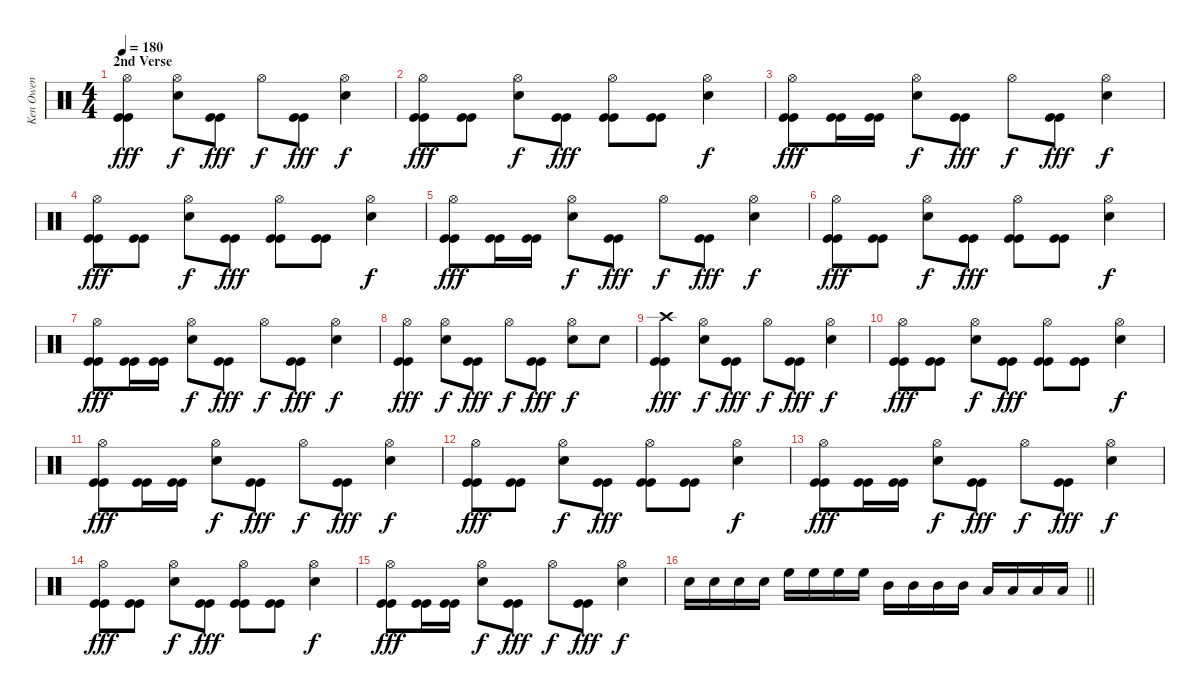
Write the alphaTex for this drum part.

\track ("Ken Owen" "Ken Owen") {instrument percussion}
\staff {score}
\articulation defaults
\ts (4 4)
\section ("" "2nd Verse")
\tempo 180
\clef neutral
\ks c
("Hi-Hat (open)" "Kick (hit)" "Kick (hit)").4{dy fff} ("Hi-Hat (open)" "Snare (hit) 2").8{dy f} ("Kick (hit)" "Kick (hit)").8{dy fff} "Hi-Hat (open)".8{dy f} ("Kick (hit)" "Kick (hit)").8{dy fff} ("Hi-Hat (open)" "Snare (hit) 2").4{dy f} |
("Hi-Hat (open)" "Kick (hit)" "Kick (hit)").8{dy fff} ("Kick (hit)" "Kick (hit)").8 ("Hi-Hat (open)" "Snare (hit) 2").8{dy f} ("Kick (hit)" "Kick (hit)").8{dy fff} ("Hi-Hat (open)" "Kick (hit)" "Kick (hit)").8 ("Kick (hit)" "Kick (hit)").8 ("Hi-Hat (open)" "Snare (hit) 2").4{dy f} |
("Hi-Hat (open)" "Kick (hit)" "Kick (hit)").8{dy fff} ("Kick (hit)" "Kick (hit)").16 ("Kick (hit)" "Kick (hit)").16 ("Hi-Hat (open)" "Snare (hit) 2").8{dy f} ("Kick (hit)" "Kick (hit)").8{dy fff} "Hi-Hat (open)".8{dy f} ("Kick (hit)" "Kick (hit)").8{dy fff} ("Hi-Hat (open)" "Snare (hit) 2").4{dy f} |
("Hi-Hat (open)" "Kick (hit)" "Kick (hit)").8{dy fff} ("Kick (hit)" "Kick (hit)").8 ("Hi-Hat (open)" "Snare (hit) 2").8{dy f} ("Kick (hit)" "Kick (hit)").8{dy fff} ("Hi-Hat (open)" "Kick (hit)" "Kick (hit)").8 ("Kick (hit)" "Kick (hit)").8 ("Hi-Hat (open)" "Snare (hit) 2").4{dy f} |
("Hi-Hat (open)" "Kick (hit)" "Kick (hit)").8{dy fff} ("Kick (hit)" "Kick (hit)").16 ("Kick (hit)" "Kick (hit)").16 ("Hi-Hat (open)" "Snare (hit) 2").8{dy f} ("Kick (hit)" "Kick (hit)").8{dy fff} "Hi-Hat (open)".8{dy f} ("Kick (hit)" "Kick (hit)").8{dy fff} ("Hi-Hat (open)" "Snare (hit) 2").4{dy f} |
("Hi-Hat (open)" "Kick (hit)" "Kick (hit)").8{dy fff} ("Kick (hit)" "Kick (hit)").8 ("Hi-Hat (open)" "Snare (hit) 2").8{dy f} ("Kick (hit)" "Kick (hit)").8{dy fff} ("Hi-Hat (open)" "Kick (hit)" "Kick (hit)").8 ("Kick (hit)" "Kick (hit)").8 ("Hi-Hat (open)" "Snare (hit) 2").4{dy f} |
("Hi-Hat (open)" "Kick (hit)" "Kick (hit)").8{dy fff} ("Kick (hit)" "Kick (hit)").16 ("Kick (hit)" "Kick (hit)").16 ("Hi-Hat (open)" "Snare (hit) 2").8{dy f} ("Kick (hit)" "Kick (hit)").8{dy fff} "Hi-Hat (open)".8{dy f} ("Kick (hit)" "Kick (hit)").8{dy fff} ("Hi-Hat (open)" "Snare (hit) 2").4{dy f} |
("Hi-Hat (open)" "Kick (hit)" "Kick (hit)").4{dy fff} ("Hi-Hat (open)" "Snare (hit) 2").8{dy f} ("Kick (hit)" "Kick (hit)").8{dy fff} "Hi-Hat (open)".8{dy f} ("Kick (hit)" "Kick (hit)").8{dy fff} ("Hi-Hat (open)" "Snare (hit) 2").8{dy f} "Snare (hit) 2".8 |
("Crash high (hit)" "Kick (hit)" "Kick (hit)").4{dy fff} ("Hi-Hat (open)" "Snare (hit) 2").8{dy f} ("Kick (hit)" "Kick (hit)").8{dy fff} "Hi-Hat (open)".8{dy f} ("Kick (hit)" "Kick (hit)").8{dy fff} ("Hi-Hat (open)" "Snare (hit) 2").4{dy f} |
("Hi-Hat (open)" "Kick (hit)" "Kick (hit)").8{dy fff} ("Kick (hit)" "Kick (hit)").8 ("Hi-Hat (open)" "Snare (hit) 2").8{dy f} ("Kick (hit)" "Kick (hit)").8{dy fff} ("Hi-Hat (open)" "Kick (hit)" "Kick (hit)").8 ("Kick (hit)" "Kick (hit)").8 ("Hi-Hat (open)" "Snare (hit) 2").4{dy f} |
("Hi-Hat (open)" "Kick (hit)" "Kick (hit)").8{dy fff} ("Kick (hit)" "Kick (hit)").16 ("Kick (hit)" "Kick (hit)").16 ("Hi-Hat (open)" "Snare (hit) 2").8{dy f} ("Kick (hit)" "Kick (hit)").8{dy fff} "Hi-Hat (open)".8{dy f} ("Kick (hit)" "Kick (hit)").8{dy fff} ("Hi-Hat (open)" "Snare (hit) 2").4{dy f} |
("Hi-Hat (open)" "Kick (hit)" "Kick (hit)").8{dy fff} ("Kick (hit)" "Kick (hit)").8 ("Hi-Hat (open)" "Snare (hit) 2").8{dy f} ("Kick (hit)" "Kick (hit)").8{dy fff} ("Hi-Hat (open)" "Kick (hit)" "Kick (hit)").8 ("Kick (hit)" "Kick (hit)").8 ("Hi-Hat (open)" "Snare (hit) 2").4{dy f} |
("Hi-Hat (open)" "Kick (hit)" "Kick (hit)").8{dy fff} ("Kick (hit)" "Kick (hit)").16 ("Kick (hit)" "Kick (hit)").16 ("Hi-Hat (open)" "Snare (hit) 2").8{dy f} ("Kick (hit)" "Kick (hit)").8{dy fff} "Hi-Hat (open)".8{dy f} ("Kick (hit)" "Kick (hit)").8{dy fff} ("Hi-Hat (open)" "Snare (hit) 2").4{dy f} |
("Hi-Hat (open)" "Kick (hit)" "Kick (hit)").8{dy fff} ("Kick (hit)" "Kick (hit)").8 ("Hi-Hat (open)" "Snare (hit) 2").8{dy f} ("Kick (hit)" "Kick (hit)").8{dy fff} ("Hi-Hat (open)" "Kick (hit)" "Kick (hit)").8 ("Kick (hit)" "Kick (hit)").8 ("Hi-Hat (open)" "Snare (hit) 2").4{dy f} |
("Hi-Hat (open)" "Kick (hit)" "Kick (hit)").8{dy fff} ("Kick (hit)" "Kick (hit)").16 ("Kick (hit)" "Kick (hit)").16 ("Hi-Hat (open)" "Snare (hit) 2").8{dy f} ("Kick (hit)" "Kick (hit)").8{dy fff} "Hi-Hat (open)".8{dy f} ("Kick (hit)" "Kick (hit)").8{dy fff} ("Hi-Hat (open)" "Snare (hit) 2").4{dy f} |
\barLineRight lightlight "Snare (hit) 2".16 "Snare (hit) 2".16 "Snare (hit) 2".16 "Snare (hit) 2".16 "High Floor Tom (hit)".16 "High Floor Tom (hit)".16 "High Floor Tom (hit)".16 "High Floor Tom (hit)".16 "Mid Tom (hit)".16 "Mid Tom (hit)".16 "Mid Tom (hit)".16 "Mid Tom (hit)".16 "Low Tom (hit)".16 "Low Tom (hit)".16 "Low Tom (hit)".16 "Low Tom (hit)".16
